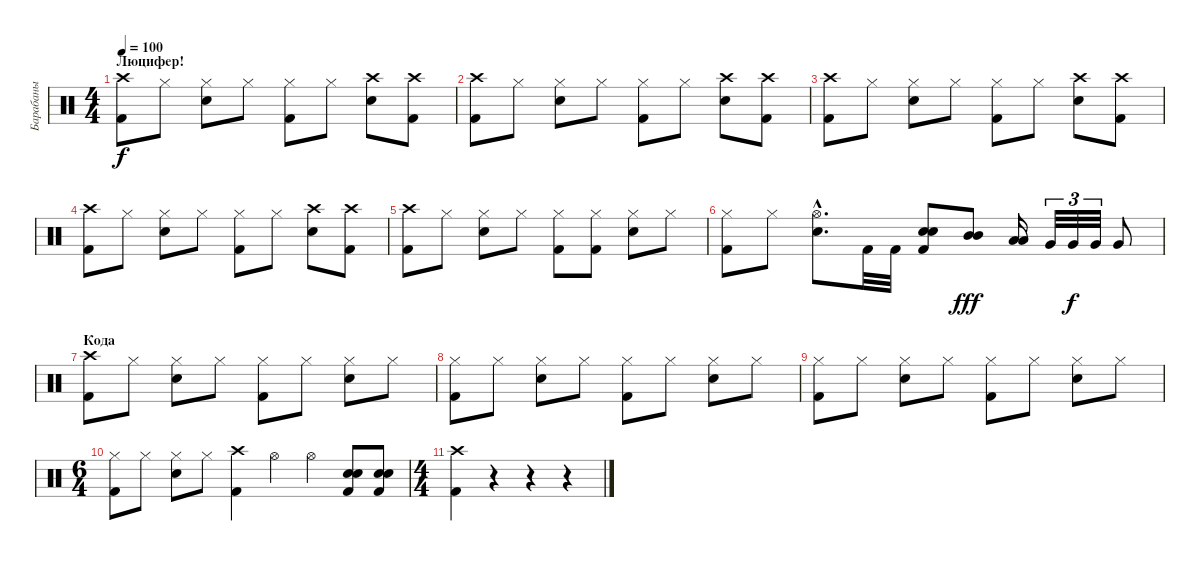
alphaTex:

\track ("Барабаны" "Барабаны") {instrument percussion}
\staff {score}
\articulation defaults
\ts (4 4)
\section ("" "Люцифер!")
\tempo 100
\clef neutral
\ks c
("Crash high (hit)" "Kick (hit) 2").8{dy f} "Hi-Hat (closed)".8 ("Hi-Hat (closed)" "Snare (hit) 2").8 "Hi-Hat (closed)".8 ("Hi-Hat (closed)" "Kick (hit) 2").8 "Hi-Hat (closed)".8 ("Crash high (hit)" "Snare (hit) 2").8 ("Crash high (hit)" "Kick (hit) 2").8 |
("Crash high (hit)" "Kick (hit) 2").8 "Hi-Hat (closed)".8 ("Hi-Hat (closed)" "Snare (hit) 2").8 "Hi-Hat (closed)".8 ("Hi-Hat (closed)" "Kick (hit) 2").8 "Hi-Hat (closed)".8 ("Crash high (hit)" "Snare (hit) 2").8 ("Crash high (hit)" "Kick (hit) 2").8 |
("Crash high (hit)" "Kick (hit) 2").8 "Hi-Hat (closed)".8 ("Hi-Hat (closed)" "Snare (hit) 2").8 "Hi-Hat (closed)".8 ("Hi-Hat (closed)" "Kick (hit) 2").8 "Hi-Hat (closed)".8 ("Crash high (hit)" "Snare (hit) 2").8 ("Crash high (hit)" "Kick (hit) 2").8 |
("Crash high (hit)" "Kick (hit) 2").8 "Hi-Hat (closed)".8 ("Hi-Hat (closed)" "Snare (hit) 2").8 "Hi-Hat (closed)".8 ("Hi-Hat (closed)" "Kick (hit) 2").8 "Hi-Hat (closed)".8 ("Crash high (hit)" "Snare (hit) 2").8 ("Crash high (hit)" "Kick (hit) 2").8 |
("Crash high (hit)" "Kick (hit) 2").8 "Hi-Hat (closed)".8 ("Hi-Hat (closed)" "Snare (hit) 2").8 "Hi-Hat (closed)".8 ("Hi-Hat (closed)" "Kick (hit) 2").8 ("Hi-Hat (closed)" "Kick (hit) 2").8 ("Hi-Hat (closed)" "Snare (hit) 2").8 "Hi-Hat (closed)".8 |
("Hi-Hat (closed)" "Kick (hit) 2").8 "Hi-Hat (closed)".8 ("Hi-Hat (open)"{hac} "Snare (hit) 2"{hac}).8{d} "Kick (hit) 2".32 "Kick (hit) 2".32 ("Snare (hit) 2" "Snare (hit) 2" "Kick (hit) 2").8 ("Mid Tom (hit)" "Mid Tom (hit)").8{dy fff} ("Low Tom (hit)" "Low Tom (hit)").16 "Very Low Tom (hit)".32{tu (3 2)} "Very Low Tom (hit)".32{tu (3 2) dy f} "Very Low Tom (hit)".32{tu (3 2)} "Very Low Tom (hit)".8 |
\section ("" "Кода")
("Crash high (hit)" "Kick (hit) 2").8 "Hi-Hat (closed)".8 ("Hi-Hat (closed)" "Snare (hit) 2").8 "Hi-Hat (closed)".8 ("Hi-Hat (closed)" "Kick (hit) 2").8 "Hi-Hat (closed)".8 ("Hi-Hat (closed)" "Snare (hit) 2").8 "Hi-Hat (closed)".8 |
("Hi-Hat (closed)" "Kick (hit) 2").8 "Hi-Hat (closed)".8 ("Hi-Hat (closed)" "Snare (hit) 2").8 "Hi-Hat (closed)".8 ("Hi-Hat (closed)" "Kick (hit) 2").8 "Hi-Hat (closed)".8 ("Hi-Hat (closed)" "Snare (hit) 2").8 "Hi-Hat (closed)".8 |
("Hi-Hat (closed)" "Kick (hit) 2").8 "Hi-Hat (closed)".8 ("Hi-Hat (closed)" "Snare (hit) 2").8 "Hi-Hat (closed)".8 ("Hi-Hat (closed)" "Kick (hit) 2").8 "Hi-Hat (closed)".8 ("Hi-Hat (closed)" "Snare (hit) 2").8 "Hi-Hat (closed)".8 |
\ts (6 4)
("Hi-Hat (closed)" "Kick (hit) 2").8 "Hi-Hat (closed)".8 ("Hi-Hat (closed)" "Snare (hit) 2").8 "Hi-Hat (closed)".8 ("Crash high (hit)" "Kick (hit) 2").4 "Hi-Hat (open)".4 "Hi-Hat (open)".4 ("Snare (hit) 2" "Snare (hit) 2" "Kick (hit) 2").8 ("Snare (hit) 2" "Snare (hit) 2" "Kick (hit) 2").8 |
\ts (4 4)
("Crash high (hit)" "Kick (hit) 2").4 r.4 r.4 r.4
